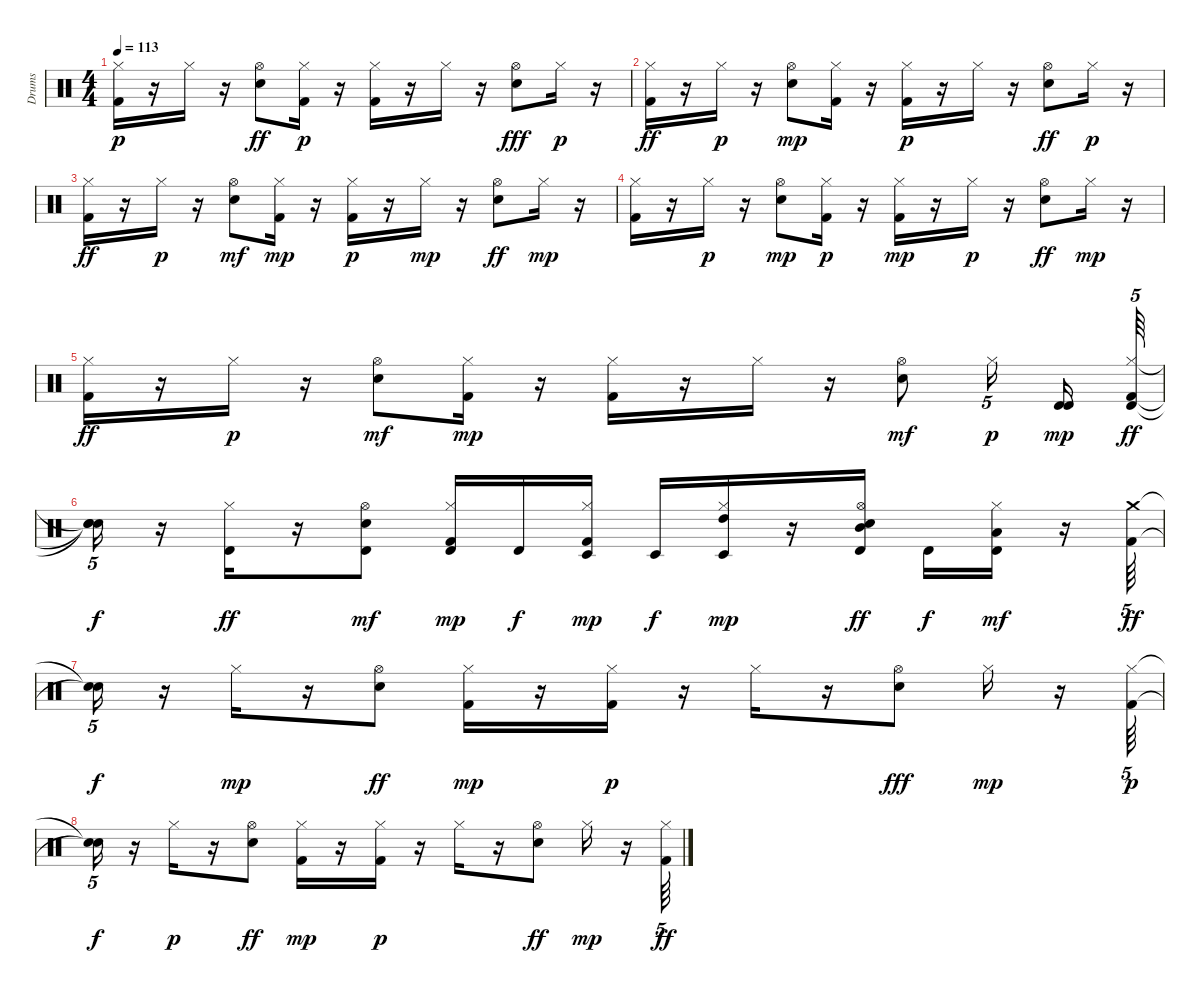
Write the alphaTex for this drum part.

\track ("Drums" "Drums") {instrument percussion}
\staff {score}
\articulation defaults
\ts (4 4)
\tempo 113
\clef neutral
\ks c
("Kick (hit) 2" "Hi-Hat (closed)").16{dy p} r.16 "Hi-Hat (closed)".16 r.16 ("Hi-Hat (open)" "Electric Snare (hit)").8{dy ff} ("Kick (hit) 2" "Hi-Hat (closed)").16{dy p} r.16 ("Hi-Hat (closed)" "Kick (hit) 2").16 r.16 "Hi-Hat (closed)".16 r.16 ("Hi-Hat (open)" "Electric Snare (hit)").8{dy fff} "Hi-Hat (closed)".16{dy p} r.16 |
("Hi-Hat (closed)" "Kick (hit) 2").16{dy ff} r.16 "Hi-Hat (closed)".16{dy p} r.16 ("Electric Snare (hit)" "Hi-Hat (open)").8{dy mp} ("Hi-Hat (closed)" "Kick (hit) 2").16 r.16 ("Kick (hit) 2" "Hi-Hat (closed)").16{dy p} r.16 "Hi-Hat (closed)".16 r.16 ("Hi-Hat (open)" "Electric Snare (hit)").8{dy ff} "Hi-Hat (closed)".16{dy p} r.16 |
("Hi-Hat (closed)" "Kick (hit) 2").16{dy ff} r.16 "Hi-Hat (closed)".16{dy p} r.16 ("Electric Snare (hit)" "Hi-Hat (open)").8{dy mf} ("Kick (hit) 2" "Hi-Hat (closed)").16{dy mp} r.16 ("Kick (hit) 2" "Hi-Hat (closed)").16{dy p} r.16 "Hi-Hat (closed)".16{dy mp} r.16 ("Hi-Hat (open)" "Electric Snare (hit)").8{dy ff} "Hi-Hat (closed)".16{dy mp} r.16 |
("Kick (hit) 2" "Hi-Hat (closed)").16 r.16 "Hi-Hat (closed)".16{dy p} r.16 ("Electric Snare (hit)" "Hi-Hat (open)").8{dy mp} ("Hi-Hat (closed)" "Kick (hit) 2").16{dy p} r.16 ("Kick (hit) 2" "Hi-Hat (closed)").16{dy mp} r.16 "Hi-Hat (closed)".16{dy p} r.16 ("Hi-Hat (open)" "Electric Snare (hit)").8{dy ff} "Hi-Hat (closed)".16{dy mp} r.16 |
("Hi-Hat (closed)" "Kick (hit) 2").16{dy ff} r.16 "Hi-Hat (closed)".16{dy p} r.16 ("Electric Snare (hit)" "Hi-Hat (open)").8{dy mf} ("Hi-Hat (closed)" "Kick (hit) 2").16{dy mp} r.16 ("Kick (hit) 2" "Hi-Hat (closed)").16 r.16 "Hi-Hat (closed)".16 r.16 ("Electric Snare (hit)" "Hi-Hat (open)").8{dy mf} "Hi-Hat (closed)".16{tu (5 4) dy p beam splitsecondary} ("Timbale high (hit)" "Timbale high (hit)").16{dy mp} ("Hi-Hat (closed)" "Timbale high (hit)" "Kick (hit) 2").64{tu (5 4) dy ff} |
("Snare (hit)"{t} "Snare (hit)"{t} "Snare (hit)"{t}).16{tu (5 4) dy f} r.16 ("Hi-Hat (closed)" "Timbale high (hit)").16{dy ff} r.16 ("Electric Snare (hit)" "Timbale high (hit)" "Hi-Hat (open)").8{dy mf} ("Kick (hit) 2" "Hi-Hat (closed)" "Timbale high (hit)").16{dy mp} "Timbale high (hit)".16{dy f} ("Timbale low (hit)" "Kick (hit) 2" "Hi-Hat (closed)").16{dy mp} "Timbale low (hit)".16{dy f} ("Timbale low (hit)" "Hi-Hat (closed)" "High Tom (hit)").16{dy mp} r.16 ("Mid Tom (hit)" "Timbale high (hit)" "Hi-Hat (open)" "Electric Snare (hit)").16{dy ff} "Timbale high (hit)".16{dy f} ("Hi-Hat (closed)" "Low Tom (hit)" "Timbale high (hit)").16{dy mf} r.16 ("Crash medium (hit)" "Kick (hit) 2").64{tu (5 4) dy ff} |
("Snare (hit)"{t} "Snare (hit)"{t}).16{tu (5 4) dy f} r.16 "Hi-Hat (closed)".16{dy mp} r.16 ("Hi-Hat (open)" "Electric Snare (hit)").8{dy ff} ("Hi-Hat (closed)" "Kick (hit) 2").16{dy mp} r.16 ("Hi-Hat (closed)" "Kick (hit) 2").16{dy p} r.16 "Hi-Hat (closed)".16 r.16 ("Electric Snare (hit)" "Hi-Hat (open)").8{dy fff} "Hi-Hat (closed)".16{dy mp} r.16 ("Kick (hit) 2" "Hi-Hat (closed)").64{tu (5 4) dy p} |
("Snare (hit)"{t} "Snare (hit)"{t}).16{tu (5 4) dy f} r.16 "Hi-Hat (closed)".16{dy p} r.16 ("Electric Snare (hit)" "Hi-Hat (open)").8{dy ff} ("Hi-Hat (closed)" "Kick (hit) 2").16{dy mp} r.16 ("Kick (hit) 2" "Hi-Hat (closed)").16{dy p} r.16 "Hi-Hat (closed)".16 r.16 ("Hi-Hat (open)" "Electric Snare (hit)").8{dy ff} "Hi-Hat (closed)".16{dy mp} r.16 ("Hi-Hat (closed)" "Kick (hit) 2").64{tu (5 4) dy ff}
